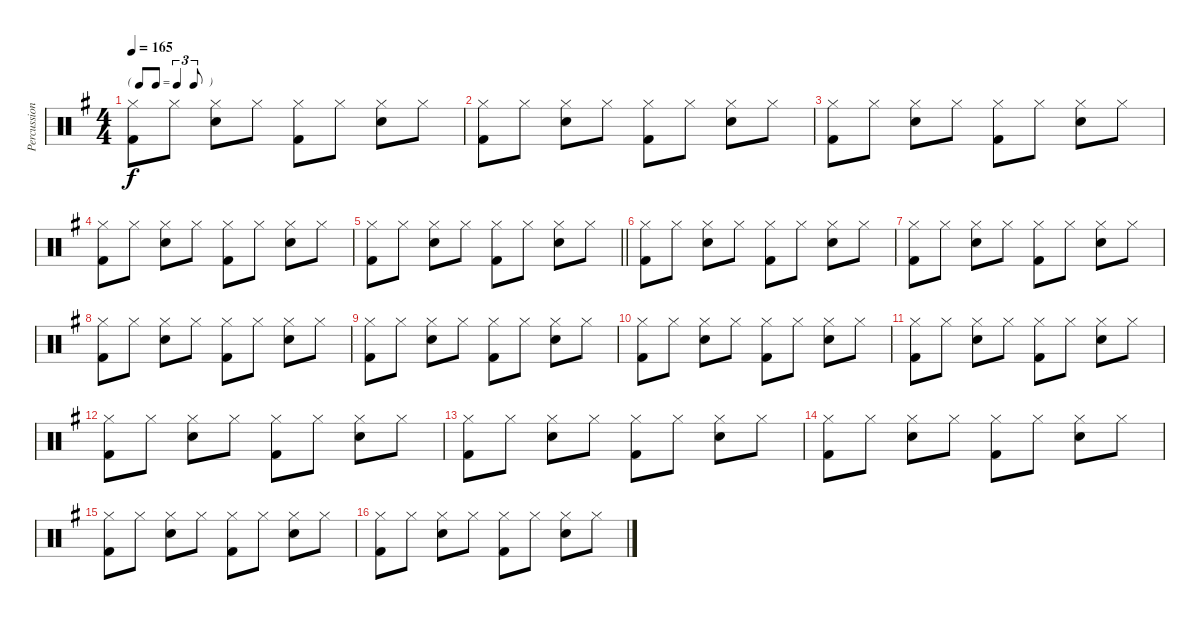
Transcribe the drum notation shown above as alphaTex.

\track ("Percussion" "Percussion") {instrument percussion}
\staff {score}
\articulation defaults
\ts (4 4)
\tf triplet8th
\tempo 165
\clef neutral
\ks g
("Hi-Hat (closed)" "Kick (hit) 2").8{dy f} "Hi-Hat (closed)".8 ("Hi-Hat (closed)" "Snare (hit) 2").8 "Hi-Hat (closed)".8 ("Hi-Hat (closed)" "Kick (hit) 2").8 "Hi-Hat (closed)".8 ("Hi-Hat (closed)" "Snare (hit) 2").8 "Hi-Hat (closed)".8 |
("Hi-Hat (closed)" "Kick (hit) 2").8 "Hi-Hat (closed)".8 ("Hi-Hat (closed)" "Snare (hit) 2").8 "Hi-Hat (closed)".8 ("Hi-Hat (closed)" "Kick (hit) 2").8 "Hi-Hat (closed)".8 ("Hi-Hat (closed)" "Snare (hit) 2").8 "Hi-Hat (closed)".8 |
("Hi-Hat (closed)" "Kick (hit) 2").8 "Hi-Hat (closed)".8 ("Hi-Hat (closed)" "Snare (hit) 2").8 "Hi-Hat (closed)".8 ("Hi-Hat (closed)" "Kick (hit) 2").8 "Hi-Hat (closed)".8 ("Hi-Hat (closed)" "Snare (hit) 2").8 "Hi-Hat (closed)".8 |
("Hi-Hat (closed)" "Kick (hit) 2").8 "Hi-Hat (closed)".8 ("Hi-Hat (closed)" "Snare (hit) 2").8 "Hi-Hat (closed)".8 ("Hi-Hat (closed)" "Kick (hit) 2").8 "Hi-Hat (closed)".8 ("Hi-Hat (closed)" "Snare (hit) 2").8 "Hi-Hat (closed)".8 |
\barLineRight lightlight
("Hi-Hat (closed)" "Kick (hit) 2").8 "Hi-Hat (closed)".8 ("Hi-Hat (closed)" "Snare (hit) 2").8 "Hi-Hat (closed)".8 ("Hi-Hat (closed)" "Kick (hit) 2").8 "Hi-Hat (closed)".8 ("Hi-Hat (closed)" "Snare (hit) 2").8 "Hi-Hat (closed)".8 |
("Hi-Hat (closed)" "Kick (hit) 2").8 "Hi-Hat (closed)".8 ("Hi-Hat (closed)" "Snare (hit) 2").8 "Hi-Hat (closed)".8 ("Hi-Hat (closed)" "Kick (hit) 2").8 "Hi-Hat (closed)".8 ("Hi-Hat (closed)" "Snare (hit) 2").8 "Hi-Hat (closed)".8 |
("Hi-Hat (closed)" "Kick (hit) 2").8 "Hi-Hat (closed)".8 ("Hi-Hat (closed)" "Snare (hit) 2").8 "Hi-Hat (closed)".8 ("Hi-Hat (closed)" "Kick (hit) 2").8 "Hi-Hat (closed)".8 ("Hi-Hat (closed)" "Snare (hit) 2").8 "Hi-Hat (closed)".8 |
("Hi-Hat (closed)" "Kick (hit) 2").8 "Hi-Hat (closed)".8 ("Hi-Hat (closed)" "Snare (hit) 2").8 "Hi-Hat (closed)".8 ("Hi-Hat (closed)" "Kick (hit) 2").8 "Hi-Hat (closed)".8 ("Hi-Hat (closed)" "Snare (hit) 2").8 "Hi-Hat (closed)".8 |
("Hi-Hat (closed)" "Kick (hit) 2").8 "Hi-Hat (closed)".8 ("Hi-Hat (closed)" "Snare (hit) 2").8 "Hi-Hat (closed)".8 ("Hi-Hat (closed)" "Kick (hit) 2").8 "Hi-Hat (closed)".8 ("Hi-Hat (closed)" "Snare (hit) 2").8 "Hi-Hat (closed)".8 |
("Hi-Hat (closed)" "Kick (hit) 2").8 "Hi-Hat (closed)".8 ("Hi-Hat (closed)" "Snare (hit) 2").8 "Hi-Hat (closed)".8 ("Hi-Hat (closed)" "Kick (hit) 2").8 "Hi-Hat (closed)".8 ("Hi-Hat (closed)" "Snare (hit) 2").8 "Hi-Hat (closed)".8 |
("Hi-Hat (closed)" "Kick (hit) 2").8 "Hi-Hat (closed)".8 ("Hi-Hat (closed)" "Snare (hit) 2").8 "Hi-Hat (closed)".8 ("Hi-Hat (closed)" "Kick (hit) 2").8 "Hi-Hat (closed)".8 ("Hi-Hat (closed)" "Snare (hit) 2").8 "Hi-Hat (closed)".8 |
("Hi-Hat (closed)" "Kick (hit) 2").8 "Hi-Hat (closed)".8 ("Hi-Hat (closed)" "Snare (hit) 2").8 "Hi-Hat (closed)".8 ("Hi-Hat (closed)" "Kick (hit) 2").8 "Hi-Hat (closed)".8 ("Hi-Hat (closed)" "Snare (hit) 2").8 "Hi-Hat (closed)".8 |
("Hi-Hat (closed)" "Kick (hit) 2").8 "Hi-Hat (closed)".8 ("Hi-Hat (closed)" "Snare (hit) 2").8 "Hi-Hat (closed)".8 ("Hi-Hat (closed)" "Kick (hit) 2").8 "Hi-Hat (closed)".8 ("Hi-Hat (closed)" "Snare (hit) 2").8 "Hi-Hat (closed)".8 |
("Hi-Hat (closed)" "Kick (hit) 2").8 "Hi-Hat (closed)".8 ("Hi-Hat (closed)" "Snare (hit) 2").8 "Hi-Hat (closed)".8 ("Hi-Hat (closed)" "Kick (hit) 2").8 "Hi-Hat (closed)".8 ("Hi-Hat (closed)" "Snare (hit) 2").8 "Hi-Hat (closed)".8 |
("Hi-Hat (closed)" "Kick (hit) 2").8 "Hi-Hat (closed)".8 ("Hi-Hat (closed)" "Snare (hit) 2").8 "Hi-Hat (closed)".8 ("Hi-Hat (closed)" "Kick (hit) 2").8 "Hi-Hat (closed)".8 ("Hi-Hat (closed)" "Snare (hit) 2").8 "Hi-Hat (closed)".8 |
("Hi-Hat (closed)" "Kick (hit) 2").8 "Hi-Hat (closed)".8 ("Hi-Hat (closed)" "Snare (hit) 2").8 "Hi-Hat (closed)".8 ("Hi-Hat (closed)" "Kick (hit) 2").8 "Hi-Hat (closed)".8 ("Hi-Hat (closed)" "Snare (hit) 2").8 "Hi-Hat (closed)".8
